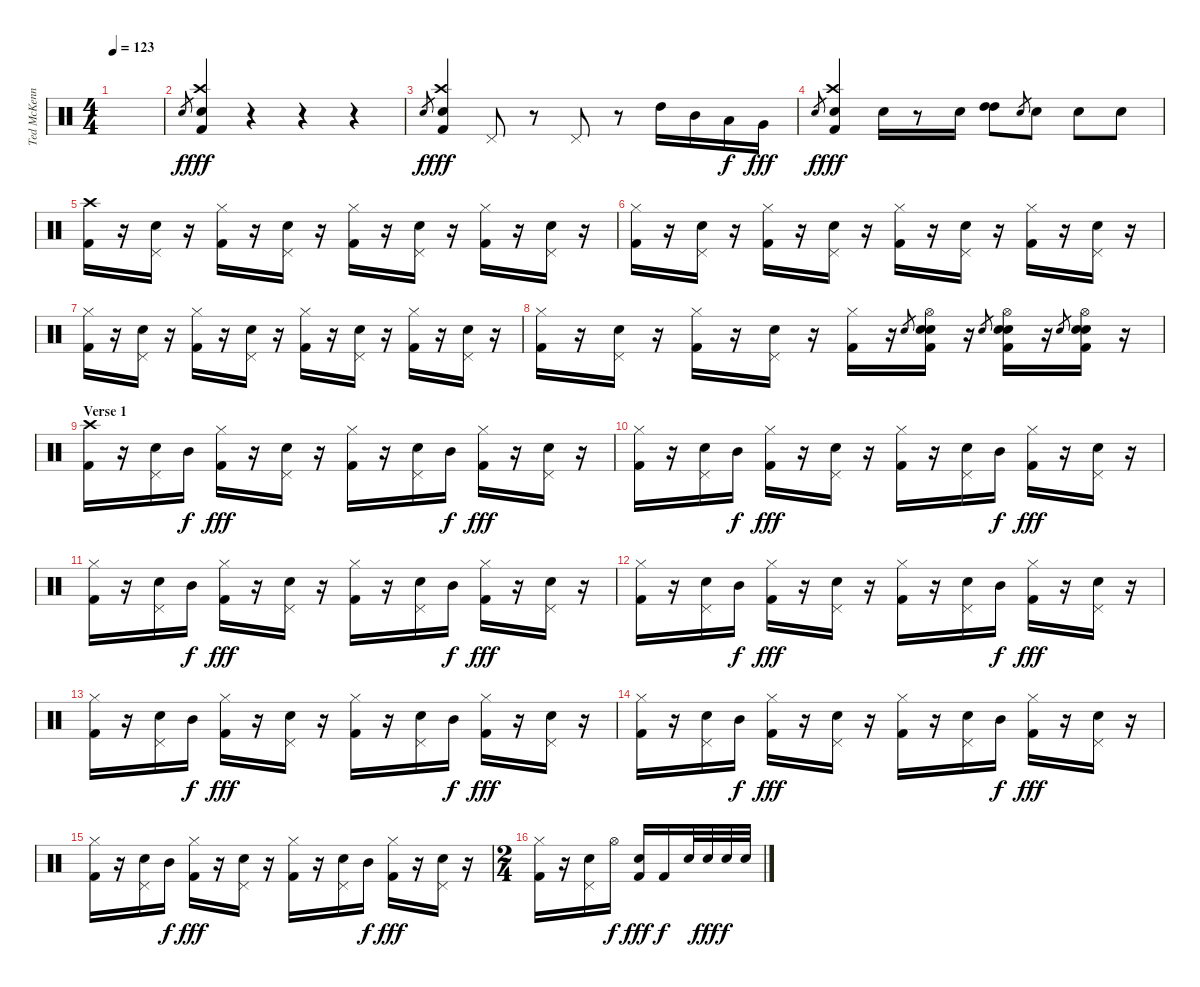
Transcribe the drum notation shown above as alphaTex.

\track ("Ted McKenna" "Ted McKenn") {instrument percussion}
\staff {score}
\articulation defaults
\ts (4 4)
\tempo 123
\clef neutral
\ks c
|
"Snare (hit) 2".8{gr} ("Crash high (hit)" "Snare (hit) 2" "Kick (hit) 2").4{dy fff} r.4 r.4 r.4 |
"Snare (hit) 2".8{gr dy f} ("Crash high (hit)" "Snare (hit) 2" "Kick (hit) 2").4{dy fff} "Pedal Hi-Hat (hit)".8 r.8 "Pedal Hi-Hat (hit)".8 r.8 "High Tom (hit)".16 "Mid Tom (hit)".16 "Low Tom (hit)".16{dy f} "Very Low Tom (hit)".16{dy fff} |
"Snare (hit) 2".8{gr dy f} ("Crash high (hit)" "Snare (hit) 2" "Kick (hit) 2").4{dy fff} "Snare (hit) 2".16 r.8 "Snare (hit) 2".16 ("High Tom (hit)" "High Tom (hit)").8 "Snare (hit) 2".8{gr} "Electric Snare (hit)".8 "Electric Snare (hit)".8 "Electric Snare (hit)".8 |
("Crash high (hit)" "Kick (hit) 2").16 r.16 ("Snare (hit) 2" "Pedal Hi-Hat (hit)").16 r.16 ("Hi-Hat (closed)" "Kick (hit) 2").16 r.16 ("Snare (hit) 2" "Pedal Hi-Hat (hit)").16 r.16 ("Hi-Hat (closed)" "Kick (hit) 2").16 r.16 ("Snare (hit) 2" "Pedal Hi-Hat (hit)").16 r.16 ("Hi-Hat (closed)" "Kick (hit) 2").16 r.16 ("Snare (hit) 2" "Pedal Hi-Hat (hit)").16 r.16 |
("Hi-Hat (closed)" "Kick (hit) 2").16 r.16 ("Snare (hit) 2" "Pedal Hi-Hat (hit)").16 r.16 ("Hi-Hat (closed)" "Kick (hit) 2").16 r.16 ("Snare (hit) 2" "Pedal Hi-Hat (hit)").16 r.16 ("Hi-Hat (closed)" "Kick (hit) 2").16 r.16 ("Snare (hit) 2" "Pedal Hi-Hat (hit)").16 r.16 ("Hi-Hat (closed)" "Kick (hit) 2").16 r.16 ("Snare (hit) 2" "Pedal Hi-Hat (hit)").16 r.16 |
("Hi-Hat (closed)" "Kick (hit) 2").16 r.16 ("Snare (hit) 2" "Pedal Hi-Hat (hit)").16 r.16 ("Hi-Hat (closed)" "Kick (hit) 2").16 r.16 ("Snare (hit) 2" "Pedal Hi-Hat (hit)").16 r.16 ("Hi-Hat (closed)" "Kick (hit) 2").16 r.16 ("Snare (hit) 2" "Pedal Hi-Hat (hit)").16 r.16 ("Hi-Hat (closed)" "Kick (hit) 2").16 r.16 ("Snare (hit) 2" "Pedal Hi-Hat (hit)").16 r.16 |
("Hi-Hat (closed)" "Kick (hit) 2").16 r.16 ("Snare (hit) 2" "Pedal Hi-Hat (hit)").16 r.16 ("Hi-Hat (closed)" "Kick (hit) 2").16 r.16 ("Snare (hit) 2" "Pedal Hi-Hat (hit)").16 r.16 ("Hi-Hat (closed)" "Kick (hit) 2").16 r.16 "Electric Snare (hit)".8{gr} ("Hi-Hat (open)" "Snare (hit) 2" "Electric Snare (hit)" "Kick (hit) 2").16 r.16 "Electric Snare (hit)".8{gr} ("Hi-Hat (open)" "Snare (hit) 2" "Electric Snare (hit)" "Kick (hit) 2").16 r.16 "Electric Snare (hit)".8{gr} ("Hi-Hat (open)" "Snare (hit) 2" "Electric Snare (hit)" "Kick (hit) 2").16 r.16 |
\section ("" "Verse 1")
("Crash high (hit)" "Kick (hit) 2").16 r.16 ("Snare (hit) 2" "Pedal Hi-Hat (hit)").16 "Mid Tom (hit)".16{dy f} ("Hi-Hat (closed)" "Kick (hit) 2").16{dy fff} r.16 ("Snare (hit) 2" "Pedal Hi-Hat (hit)").16 r.16 ("Hi-Hat (closed)" "Kick (hit) 2").16 r.16 ("Snare (hit) 2" "Pedal Hi-Hat (hit)").16 "Mid Tom (hit)".16{dy f} ("Hi-Hat (closed)" "Kick (hit) 2").16{dy fff} r.16 ("Snare (hit) 2" "Pedal Hi-Hat (hit)").16 r.16 |
("Hi-Hat (closed)" "Kick (hit) 2").16 r.16 ("Snare (hit) 2" "Pedal Hi-Hat (hit)").16 "Mid Tom (hit)".16{dy f} ("Hi-Hat (closed)" "Kick (hit) 2").16{dy fff} r.16 ("Snare (hit) 2" "Pedal Hi-Hat (hit)").16 r.16 ("Hi-Hat (closed)" "Kick (hit) 2").16 r.16 ("Snare (hit) 2" "Pedal Hi-Hat (hit)").16 "Mid Tom (hit)".16{dy f} ("Hi-Hat (closed)" "Kick (hit) 2").16{dy fff} r.16 ("Snare (hit) 2" "Pedal Hi-Hat (hit)").16 r.16 |
("Hi-Hat (closed)" "Kick (hit) 2").16 r.16 ("Snare (hit) 2" "Pedal Hi-Hat (hit)").16 "Mid Tom (hit)".16{dy f} ("Hi-Hat (closed)" "Kick (hit) 2").16{dy fff} r.16 ("Snare (hit) 2" "Pedal Hi-Hat (hit)").16 r.16 ("Hi-Hat (closed)" "Kick (hit) 2").16 r.16 ("Snare (hit) 2" "Pedal Hi-Hat (hit)").16 "Mid Tom (hit)".16{dy f} ("Hi-Hat (closed)" "Kick (hit) 2").16{dy fff} r.16 ("Snare (hit) 2" "Pedal Hi-Hat (hit)").16 r.16 |
("Hi-Hat (closed)" "Kick (hit) 2").16 r.16 ("Snare (hit) 2" "Pedal Hi-Hat (hit)").16 "Mid Tom (hit)".16{dy f} ("Hi-Hat (closed)" "Kick (hit) 2").16{dy fff} r.16 ("Snare (hit) 2" "Pedal Hi-Hat (hit)").16 r.16 ("Hi-Hat (closed)" "Kick (hit) 2").16 r.16 ("Snare (hit) 2" "Pedal Hi-Hat (hit)").16 "Mid Tom (hit)".16{dy f} ("Hi-Hat (closed)" "Kick (hit) 2").16{dy fff} r.16 ("Snare (hit) 2" "Pedal Hi-Hat (hit)").16 r.16 |
("Hi-Hat (closed)" "Kick (hit) 2").16 r.16 ("Snare (hit) 2" "Pedal Hi-Hat (hit)").16 "Mid Tom (hit)".16{dy f} ("Hi-Hat (closed)" "Kick (hit) 2").16{dy fff} r.16 ("Snare (hit) 2" "Pedal Hi-Hat (hit)").16 r.16 ("Hi-Hat (closed)" "Kick (hit) 2").16 r.16 ("Snare (hit) 2" "Pedal Hi-Hat (hit)").16 "Mid Tom (hit)".16{dy f} ("Hi-Hat (closed)" "Kick (hit) 2").16{dy fff} r.16 ("Snare (hit) 2" "Pedal Hi-Hat (hit)").16 r.16 |
("Hi-Hat (closed)" "Kick (hit) 2").16 r.16 ("Snare (hit) 2" "Pedal Hi-Hat (hit)").16 "Mid Tom (hit)".16{dy f} ("Hi-Hat (closed)" "Kick (hit) 2").16{dy fff} r.16 ("Snare (hit) 2" "Pedal Hi-Hat (hit)").16 r.16 ("Hi-Hat (closed)" "Kick (hit) 2").16 r.16 ("Snare (hit) 2" "Pedal Hi-Hat (hit)").16 "Mid Tom (hit)".16{dy f} ("Hi-Hat (closed)" "Kick (hit) 2").16{dy fff} r.16 ("Snare (hit) 2" "Pedal Hi-Hat (hit)").16 r.16 |
("Hi-Hat (closed)" "Kick (hit) 2").16 r.16 ("Snare (hit) 2" "Pedal Hi-Hat (hit)").16 "Mid Tom (hit)".16{dy f} ("Hi-Hat (closed)" "Kick (hit) 2").16{dy fff} r.16 ("Snare (hit) 2" "Pedal Hi-Hat (hit)").16 r.16 ("Hi-Hat (closed)" "Kick (hit) 2").16 r.16 ("Snare (hit) 2" "Pedal Hi-Hat (hit)").16 "Mid Tom (hit)".16{dy f} ("Hi-Hat (closed)" "Kick (hit) 2").16{dy fff} r.16 ("Snare (hit) 2" "Pedal Hi-Hat (hit)").16 r.16 |
\ts (2 4)
("Hi-Hat (closed)" "Kick (hit) 2").16 r.16 ("Snare (hit) 2" "Pedal Hi-Hat (hit)").16 "Hi-Hat (open)".16{dy f} ("Snare (hit) 2" "Kick (hit) 2").16{dy fff} "Kick (hit) 2".16{dy f} "Electric Snare (hit)".32 "Electric Snare (hit)".32{dy fff} "Electric Snare (hit)".32{dy f} "Electric Snare (hit)".32
